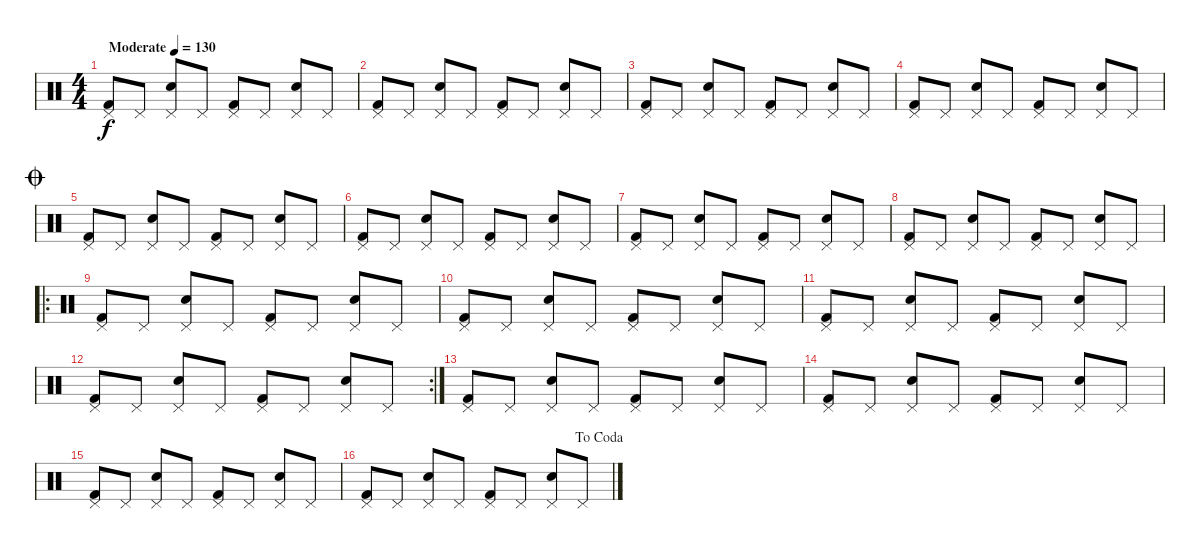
\track "" {instrument percussion}
\staff {score}
\articulation defaults
\ts (4 4)
\tempo (130 "Moderate")
\clef neutral
\ks c
("Kick (hit) 2" "Pedal Hi-Hat (hit)").8{dy f} "Pedal Hi-Hat (hit)".8 ("Electric Snare (hit)" "Pedal Hi-Hat (hit)").8 "Pedal Hi-Hat (hit)".8 ("Kick (hit) 2" "Pedal Hi-Hat (hit)").8 "Pedal Hi-Hat (hit)".8 ("Electric Snare (hit)" "Pedal Hi-Hat (hit)").8 "Pedal Hi-Hat (hit)".8 |
("Kick (hit) 2" "Pedal Hi-Hat (hit)").8 "Pedal Hi-Hat (hit)".8 ("Electric Snare (hit)" "Pedal Hi-Hat (hit)").8 "Pedal Hi-Hat (hit)".8 ("Kick (hit) 2" "Pedal Hi-Hat (hit)").8 "Pedal Hi-Hat (hit)".8 ("Electric Snare (hit)" "Pedal Hi-Hat (hit)").8 "Pedal Hi-Hat (hit)".8 |
("Kick (hit) 2" "Pedal Hi-Hat (hit)").8 "Pedal Hi-Hat (hit)".8 ("Electric Snare (hit)" "Pedal Hi-Hat (hit)").8 "Pedal Hi-Hat (hit)".8 ("Kick (hit) 2" "Pedal Hi-Hat (hit)").8 "Pedal Hi-Hat (hit)".8 ("Electric Snare (hit)" "Pedal Hi-Hat (hit)").8 "Pedal Hi-Hat (hit)".8 |
("Kick (hit) 2" "Pedal Hi-Hat (hit)").8 "Pedal Hi-Hat (hit)".8 ("Electric Snare (hit)" "Pedal Hi-Hat (hit)").8 "Pedal Hi-Hat (hit)".8 ("Kick (hit) 2" "Pedal Hi-Hat (hit)").8 "Pedal Hi-Hat (hit)".8 ("Electric Snare (hit)" "Pedal Hi-Hat (hit)").8 "Pedal Hi-Hat (hit)".8 |
\jump coda
("Kick (hit) 2" "Pedal Hi-Hat (hit)").8 "Pedal Hi-Hat (hit)".8 ("Electric Snare (hit)" "Pedal Hi-Hat (hit)").8 "Pedal Hi-Hat (hit)".8 ("Kick (hit) 2" "Pedal Hi-Hat (hit)").8 "Pedal Hi-Hat (hit)".8 ("Electric Snare (hit)" "Pedal Hi-Hat (hit)").8 "Pedal Hi-Hat (hit)".8 |
("Kick (hit) 2" "Pedal Hi-Hat (hit)").8 "Pedal Hi-Hat (hit)".8 ("Electric Snare (hit)" "Pedal Hi-Hat (hit)").8 "Pedal Hi-Hat (hit)".8 ("Kick (hit) 2" "Pedal Hi-Hat (hit)").8 "Pedal Hi-Hat (hit)".8 ("Electric Snare (hit)" "Pedal Hi-Hat (hit)").8 "Pedal Hi-Hat (hit)".8 |
("Kick (hit) 2" "Pedal Hi-Hat (hit)").8 "Pedal Hi-Hat (hit)".8 ("Electric Snare (hit)" "Pedal Hi-Hat (hit)").8 "Pedal Hi-Hat (hit)".8 ("Kick (hit) 2" "Pedal Hi-Hat (hit)").8 "Pedal Hi-Hat (hit)".8 ("Electric Snare (hit)" "Pedal Hi-Hat (hit)").8 "Pedal Hi-Hat (hit)".8 |
("Kick (hit) 2" "Pedal Hi-Hat (hit)").8 "Pedal Hi-Hat (hit)".8 ("Electric Snare (hit)" "Pedal Hi-Hat (hit)").8 "Pedal Hi-Hat (hit)".8 ("Kick (hit) 2" "Pedal Hi-Hat (hit)").8 "Pedal Hi-Hat (hit)".8 ("Electric Snare (hit)" "Pedal Hi-Hat (hit)").8 "Pedal Hi-Hat (hit)".8 |
\ro
("Kick (hit) 2" "Pedal Hi-Hat (hit)").8 "Pedal Hi-Hat (hit)".8 ("Electric Snare (hit)" "Pedal Hi-Hat (hit)").8 "Pedal Hi-Hat (hit)".8 ("Kick (hit) 2" "Pedal Hi-Hat (hit)").8 "Pedal Hi-Hat (hit)".8 ("Electric Snare (hit)" "Pedal Hi-Hat (hit)").8 "Pedal Hi-Hat (hit)".8 |
("Kick (hit) 2" "Pedal Hi-Hat (hit)").8 "Pedal Hi-Hat (hit)".8 ("Electric Snare (hit)" "Pedal Hi-Hat (hit)").8 "Pedal Hi-Hat (hit)".8 ("Kick (hit) 2" "Pedal Hi-Hat (hit)").8 "Pedal Hi-Hat (hit)".8 ("Electric Snare (hit)" "Pedal Hi-Hat (hit)").8 "Pedal Hi-Hat (hit)".8 |
("Kick (hit) 2" "Pedal Hi-Hat (hit)").8 "Pedal Hi-Hat (hit)".8 ("Electric Snare (hit)" "Pedal Hi-Hat (hit)").8 "Pedal Hi-Hat (hit)".8 ("Kick (hit) 2" "Pedal Hi-Hat (hit)").8 "Pedal Hi-Hat (hit)".8 ("Electric Snare (hit)" "Pedal Hi-Hat (hit)").8 "Pedal Hi-Hat (hit)".8 |
\rc 2
("Kick (hit) 2" "Pedal Hi-Hat (hit)").8 "Pedal Hi-Hat (hit)".8 ("Electric Snare (hit)" "Pedal Hi-Hat (hit)").8 "Pedal Hi-Hat (hit)".8 ("Kick (hit) 2" "Pedal Hi-Hat (hit)").8 "Pedal Hi-Hat (hit)".8 ("Electric Snare (hit)" "Pedal Hi-Hat (hit)").8 "Pedal Hi-Hat (hit)".8 |
("Kick (hit) 2" "Pedal Hi-Hat (hit)").8 "Pedal Hi-Hat (hit)".8 ("Electric Snare (hit)" "Pedal Hi-Hat (hit)").8 "Pedal Hi-Hat (hit)".8 ("Kick (hit) 2" "Pedal Hi-Hat (hit)").8 "Pedal Hi-Hat (hit)".8 ("Electric Snare (hit)" "Pedal Hi-Hat (hit)").8 "Pedal Hi-Hat (hit)".8 |
("Kick (hit) 2" "Pedal Hi-Hat (hit)").8 "Pedal Hi-Hat (hit)".8 ("Electric Snare (hit)" "Pedal Hi-Hat (hit)").8 "Pedal Hi-Hat (hit)".8 ("Kick (hit) 2" "Pedal Hi-Hat (hit)").8 "Pedal Hi-Hat (hit)".8 ("Electric Snare (hit)" "Pedal Hi-Hat (hit)").8 "Pedal Hi-Hat (hit)".8 |
("Kick (hit) 2" "Pedal Hi-Hat (hit)").8 "Pedal Hi-Hat (hit)".8 ("Electric Snare (hit)" "Pedal Hi-Hat (hit)").8 "Pedal Hi-Hat (hit)".8 ("Kick (hit) 2" "Pedal Hi-Hat (hit)").8 "Pedal Hi-Hat (hit)".8 ("Electric Snare (hit)" "Pedal Hi-Hat (hit)").8 "Pedal Hi-Hat (hit)".8 |
\jump dacoda
("Kick (hit) 2" "Pedal Hi-Hat (hit)").8 "Pedal Hi-Hat (hit)".8 ("Electric Snare (hit)" "Pedal Hi-Hat (hit)").8 "Pedal Hi-Hat (hit)".8 ("Kick (hit) 2" "Pedal Hi-Hat (hit)").8 "Pedal Hi-Hat (hit)".8 ("Electric Snare (hit)" "Pedal Hi-Hat (hit)").8 "Pedal Hi-Hat (hit)".8
